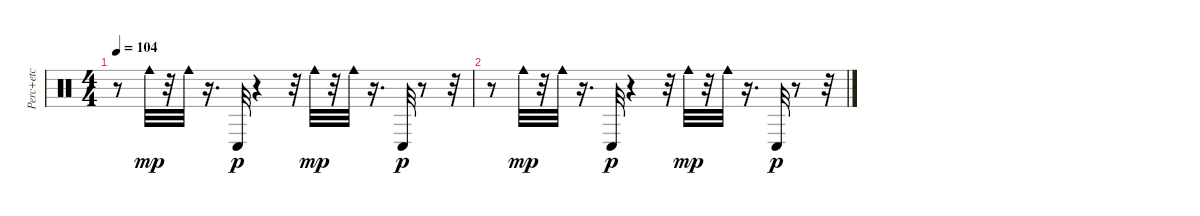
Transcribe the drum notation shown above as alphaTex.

\track ("Perc+etc" "Perc+etc") {instrument percussion}
\staff {score}
\articulation defaults
\ts (4 4)
\tempo 104
\clef neutral
\ks c
r.8{dy p} "Cowbell medium (hit)".32{dy mp} r.32 "Cowbell medium (hit)".32 r.16{d} "Conga low (hit)".32{dy p} r.4 r.32 "Cowbell medium (hit)".32{dy mp} r.32 "Cowbell medium (hit)".32 r.16{d} "Conga low (hit)".32{dy p} r.8 r.32 |
r.8 "Cowbell medium (hit)".32{dy mp} r.32 "Cowbell medium (hit)".32 r.16{d} "Conga low (hit)".32{dy p} r.4 r.32 "Cowbell medium (hit)".32{dy mp} r.32 "Cowbell medium (hit)".32 r.16{d} "Conga low (hit)".32{dy p} r.8 r.32
